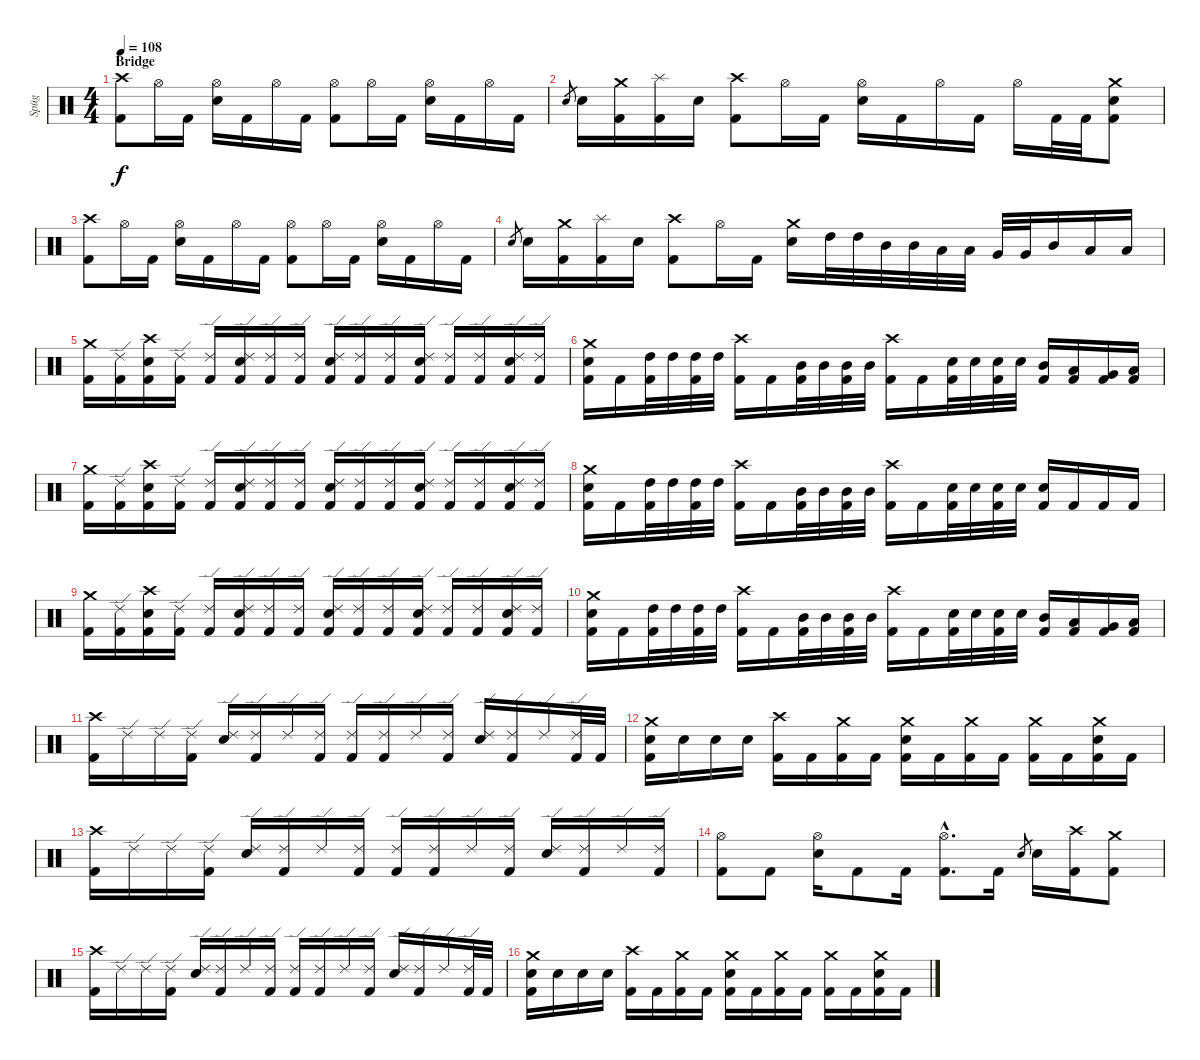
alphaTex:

\track ("Spüg" "Spüg") {instrument percussion}
\staff {score}
\articulation defaults
\ts (4 4)
\section ("" "Bridge")
\tempo 108
\clef neutral
\ks c
("Crash high (hit)" "Kick (hit) 2").8{dy f} "Hi-Hat (open)".16 "Kick (hit) 2".16 ("Hi-Hat (open)" "Electric Snare (hit)").16 "Kick (hit) 2".16 "Hi-Hat (open)".16 "Kick (hit) 2".16 ("Hi-Hat (open)" "Kick (hit) 2").8 "Hi-Hat (open)".16 "Kick (hit) 2".16 ("Hi-Hat (open)" "Electric Snare (hit)").16 "Kick (hit) 2".16 "Hi-Hat (open)".16 "Kick (hit) 2".16 |
"Electric Snare (hit)".8{gr} "Electric Snare (hit)".16 ("Crash medium (hit)" "Kick (hit) 2").16 ("Splash (hit)" "Kick (hit) 2").16 "Electric Snare (hit)".16 ("Crash high (hit)" "Kick (hit) 2").8 "Hi-Hat (open)".16 "Kick (hit) 2".16 ("Hi-Hat (open)" "Electric Snare (hit)").16 "Kick (hit) 2".16 "Hi-Hat (open)".16 "Kick (hit) 2".16 "Hi-Hat (open)".16 "Kick (hit) 2".32 "Kick (hit) 2".32 ("Crash medium (hit)" "Electric Snare (hit)" "Kick (hit) 2").8 |
("Crash high (hit)" "Kick (hit) 2").8 "Hi-Hat (open)".16 "Kick (hit) 2".16 ("Hi-Hat (open)" "Electric Snare (hit)").16 "Kick (hit) 2".16 "Hi-Hat (open)".16 "Kick (hit) 2".16 ("Hi-Hat (open)" "Kick (hit) 2").8 "Hi-Hat (open)".16 "Kick (hit) 2".16 ("Hi-Hat (open)" "Electric Snare (hit)").16 "Kick (hit) 2".16 "Hi-Hat (open)".16 "Kick (hit) 2".16 |
"Electric Snare (hit)".8{gr} "Electric Snare (hit)".16 ("Crash medium (hit)" "Kick (hit) 2").16 ("Splash (hit)" "Kick (hit) 2").16 "Electric Snare (hit)".16 ("Crash high (hit)" "Kick (hit) 2").8 "Hi-Hat (open)".16 "Kick (hit) 2".16 ("Crash medium (hit)" "Electric Snare (hit)").16 "High Tom (hit)".32 "High Tom (hit)".32 "Mid Tom (hit)".32 "Mid Tom (hit)".32 "Low Tom (hit)".32 "Low Tom (hit)".32 "Very Low Tom (hit)".32 "Very Low Tom (hit)".32 "Mid Tom (hit)".16 "Low Tom (hit)".16 "Low Floor Tom (hit)".16 |
("Crash medium (hit)" "Kick (hit) 2").16 ("Ride (edge) 2" "Kick (hit) 2").16 ("Crash high (hit)" "Electric Snare (hit)" "Kick (hit) 2").16 ("Ride (edge) 2" "Kick (hit) 2").16 ("Ride (edge) 2" "Kick (hit) 2").16 ("Ride (edge) 2" "Electric Snare (hit)" "Kick (hit) 2").16 ("Ride (edge) 2" "Kick (hit) 2").16 ("Ride (edge) 2" "Kick (hit) 2").16 ("Ride (edge) 2" "Electric Snare (hit)" "Kick (hit) 2").16 ("Ride (edge) 2" "Kick (hit) 2").16 ("Ride (edge) 2" "Kick (hit) 2").16 ("Ride (edge) 2" "Electric Snare (hit)" "Kick (hit) 2").16 ("Ride (edge) 2" "Kick (hit) 2").16 ("Ride (edge) 2" "Kick (hit) 2").16 ("Ride (edge) 2" "Electric Snare (hit)" "Kick (hit) 2").16 ("Ride (edge) 2" "Kick (hit) 2").16 |
("Crash medium (hit)" "Electric Snare (hit)" "Kick (hit) 2").16 "Kick (hit) 2".16 ("High Tom (hit)" "Kick (hit) 2").32 "High Tom (hit)".32 ("High Tom (hit)" "Kick (hit) 2").32 "High Tom (hit)".32 ("Crash high (hit)" "Kick (hit) 2").16 "Kick (hit) 2".16 ("Mid Tom (hit)" "Kick (hit) 2").32 "Mid Tom (hit)".32 ("Mid Tom (hit)" "Kick (hit) 2").32 "Mid Tom (hit)".32 ("Crash high (hit)" "Kick (hit) 2").16 "Kick (hit) 2".16 ("Electric Snare (hit)" "Kick (hit) 2").32 "Electric Snare (hit)".32 ("Electric Snare (hit)" "Kick (hit) 2").32 "Electric Snare (hit)".32 ("Mid Tom (hit)" "Kick (hit) 2").16 ("Low Tom (hit)" "Kick (hit) 2").16 ("Very Low Tom (hit)" "Kick (hit) 2").16 ("Low Floor Tom (hit)" "Kick (hit) 2").16 |
("Crash medium (hit)" "Kick (hit) 2").16 ("Ride (edge) 2" "Kick (hit) 2").16 ("Crash high (hit)" "Electric Snare (hit)" "Kick (hit) 2").16 ("Ride (edge) 2" "Kick (hit) 2").16 ("Ride (edge) 2" "Kick (hit) 2").16 ("Ride (edge) 2" "Electric Snare (hit)" "Kick (hit) 2").16 ("Ride (edge) 2" "Kick (hit) 2").16 ("Ride (edge) 2" "Kick (hit) 2").16 ("Ride (edge) 2" "Electric Snare (hit)" "Kick (hit) 2").16 ("Ride (edge) 2" "Kick (hit) 2").16 ("Ride (edge) 2" "Kick (hit) 2").16 ("Ride (edge) 2" "Electric Snare (hit)" "Kick (hit) 2").16 ("Ride (edge) 2" "Kick (hit) 2").16 ("Ride (edge) 2" "Kick (hit) 2").16 ("Ride (edge) 2" "Electric Snare (hit)" "Kick (hit) 2").16 ("Ride (edge) 2" "Kick (hit) 2").16 |
("Crash medium (hit)" "Electric Snare (hit)" "Kick (hit) 2").16 "Kick (hit) 2".16 ("High Tom (hit)" "Kick (hit) 2").32 "High Tom (hit)".32 ("High Tom (hit)" "Kick (hit) 2").32 "High Tom (hit)".32 ("Crash high (hit)" "Kick (hit) 2").16 "Kick (hit) 2".16 ("Mid Tom (hit)" "Kick (hit) 2").32 "Mid Tom (hit)".32 ("Mid Tom (hit)" "Kick (hit) 2").32 "Mid Tom (hit)".32 ("Crash high (hit)" "Kick (hit) 2").16 "Kick (hit) 2".16 ("Electric Snare (hit)" "Kick (hit) 2").32 "Electric Snare (hit)".32 ("Electric Snare (hit)" "Kick (hit) 2").32 "Electric Snare (hit)".32 ("Electric Snare (hit)" "Kick (hit) 2").16 "Kick (hit) 2".16 "Kick (hit) 2".16 "Kick (hit) 2".16 |
("Crash medium (hit)" "Kick (hit) 2").16 ("Ride (edge) 2" "Kick (hit) 2").16 ("Crash high (hit)" "Electric Snare (hit)" "Kick (hit) 2").16 ("Ride (edge) 2" "Kick (hit) 2").16 ("Ride (edge) 2" "Kick (hit) 2").16 ("Ride (edge) 2" "Electric Snare (hit)" "Kick (hit) 2").16 ("Ride (edge) 2" "Kick (hit) 2").16 ("Ride (edge) 2" "Kick (hit) 2").16 ("Ride (edge) 2" "Electric Snare (hit)" "Kick (hit) 2").16 ("Ride (edge) 2" "Kick (hit) 2").16 ("Ride (edge) 2" "Kick (hit) 2").16 ("Ride (edge) 2" "Electric Snare (hit)" "Kick (hit) 2").16 ("Ride (edge) 2" "Kick (hit) 2").16 ("Ride (edge) 2" "Kick (hit) 2").16 ("Ride (edge) 2" "Electric Snare (hit)" "Kick (hit) 2").16 ("Ride (edge) 2" "Kick (hit) 2").16 |
("Crash medium (hit)" "Electric Snare (hit)" "Kick (hit) 2").16 "Kick (hit) 2".16 ("High Tom (hit)" "Kick (hit) 2").32 "High Tom (hit)".32 ("High Tom (hit)" "Kick (hit) 2").32 "High Tom (hit)".32 ("Crash high (hit)" "Kick (hit) 2").16 "Kick (hit) 2".16 ("Mid Tom (hit)" "Kick (hit) 2").32 "Mid Tom (hit)".32 ("Mid Tom (hit)" "Kick (hit) 2").32 "Mid Tom (hit)".32 ("Crash high (hit)" "Kick (hit) 2").16 "Kick (hit) 2".16 ("Electric Snare (hit)" "Kick (hit) 2").32 "Electric Snare (hit)".32 ("Electric Snare (hit)" "Kick (hit) 2").32 "Electric Snare (hit)".32 ("Mid Tom (hit)" "Kick (hit) 2").16 ("Low Tom (hit)" "Kick (hit) 2").16 ("Very Low Tom (hit)" "Kick (hit) 2").16 ("Low Floor Tom (hit)" "Kick (hit) 2").16 |
("Crash high (hit)" "Kick (hit) 2").16 "Ride (edge) 2".16 "Ride (edge) 2".16 ("Ride (edge) 2" "Kick (hit) 2").16 ("Ride (edge) 2" "Electric Snare (hit)").16 ("Ride (edge) 2" "Kick (hit) 2").16 "Ride (edge) 2".16 ("Ride (edge) 2" "Kick (hit) 2").16 ("Ride (edge) 2" "Kick (hit) 2").16 ("Ride (edge) 2" "Kick (hit) 2").16 "Ride (edge) 2".16 ("Ride (edge) 2" "Kick (hit) 2").16 ("Ride (edge) 2" "Electric Snare (hit)").16 ("Ride (edge) 2" "Kick (hit) 2").16 "Ride (edge) 2".16 ("Ride (edge) 2" "Kick (hit) 2").32 "Kick (hit) 2".32 |
("Crash medium (hit)" "Electric Snare (hit)" "Kick (hit) 2").16 "Electric Snare (hit)".16 "Electric Snare (hit)".16 "Electric Snare (hit)".16 ("Crash high (hit)" "Kick (hit) 2").16 "Kick (hit) 2".16 ("Crash medium (hit)" "Kick (hit) 2").16 "Kick (hit) 2".16 ("Crash medium (hit)" "Electric Snare (hit)" "Kick (hit) 2").16 "Kick (hit) 2".16 ("Crash medium (hit)" "Kick (hit) 2").16 "Kick (hit) 2".16 ("Crash medium (hit)" "Kick (hit) 2").16 "Kick (hit) 2".16 ("Crash medium (hit)" "Electric Snare (hit)" "Kick (hit) 2").16 "Kick (hit) 2".16 |
("Crash high (hit)" "Kick (hit) 2").16 "Ride (edge) 2".16 "Ride (edge) 2".16 ("Ride (edge) 2" "Kick (hit) 2").16 ("Ride (edge) 2" "Electric Snare (hit)").16 ("Ride (edge) 2" "Kick (hit) 2").16 "Ride (edge) 2".16 ("Ride (edge) 2" "Kick (hit) 2").16 ("Ride (edge) 2" "Kick (hit) 2").16 ("Ride (edge) 2" "Kick (hit) 2").16 "Ride (edge) 2".16 ("Ride (edge) 2" "Kick (hit) 2").16 ("Ride (edge) 2" "Electric Snare (hit)").16 ("Ride (edge) 2" "Kick (hit) 2").16 "Ride (edge) 2".16 ("Ride (edge) 2" "Kick (hit) 2").16 |
("Hi-Hat (open)" "Kick (hit) 2").8 "Kick (hit) 2".8 ("Hi-Hat (open)" "Electric Snare (hit)").16 "Kick (hit) 2".8 "Kick (hit) 2".16 ("Hi-Hat (open)"{hac} "Kick (hit) 2"{hac}).8{d} "Kick (hit) 2".16 "Electric Snare (hit)".8{gr} "Electric Snare (hit)".16 ("Crash high (hit)" "Kick (hit) 2").16 ("Crash medium (hit)" "Kick (hit) 2").8 |
("Crash high (hit)" "Kick (hit) 2").16 "Ride (edge) 2".16 "Ride (edge) 2".16 ("Ride (edge) 2" "Kick (hit) 2").16 ("Ride (edge) 2" "Electric Snare (hit)").16 ("Ride (edge) 2" "Kick (hit) 2").16 "Ride (edge) 2".16 ("Ride (edge) 2" "Kick (hit) 2").16 ("Ride (edge) 2" "Kick (hit) 2").16 ("Ride (edge) 2" "Kick (hit) 2").16 "Ride (edge) 2".16 ("Ride (edge) 2" "Kick (hit) 2").16 ("Ride (edge) 2" "Electric Snare (hit)").16 ("Ride (edge) 2" "Kick (hit) 2").16 "Ride (edge) 2".16 ("Ride (edge) 2" "Kick (hit) 2").32 "Kick (hit) 2".32 |
("Crash medium (hit)" "Electric Snare (hit)" "Kick (hit) 2").16 "Electric Snare (hit)".16 "Electric Snare (hit)".16 "Electric Snare (hit)".16 ("Crash high (hit)" "Kick (hit) 2").16 "Kick (hit) 2".16 ("Crash medium (hit)" "Kick (hit) 2").16 "Kick (hit) 2".16 ("Crash medium (hit)" "Electric Snare (hit)" "Kick (hit) 2").16 "Kick (hit) 2".16 ("Crash medium (hit)" "Kick (hit) 2").16 "Kick (hit) 2".16 ("Crash medium (hit)" "Kick (hit) 2").16 "Kick (hit) 2".16 ("Crash medium (hit)" "Electric Snare (hit)" "Kick (hit) 2").16 "Kick (hit) 2".16
